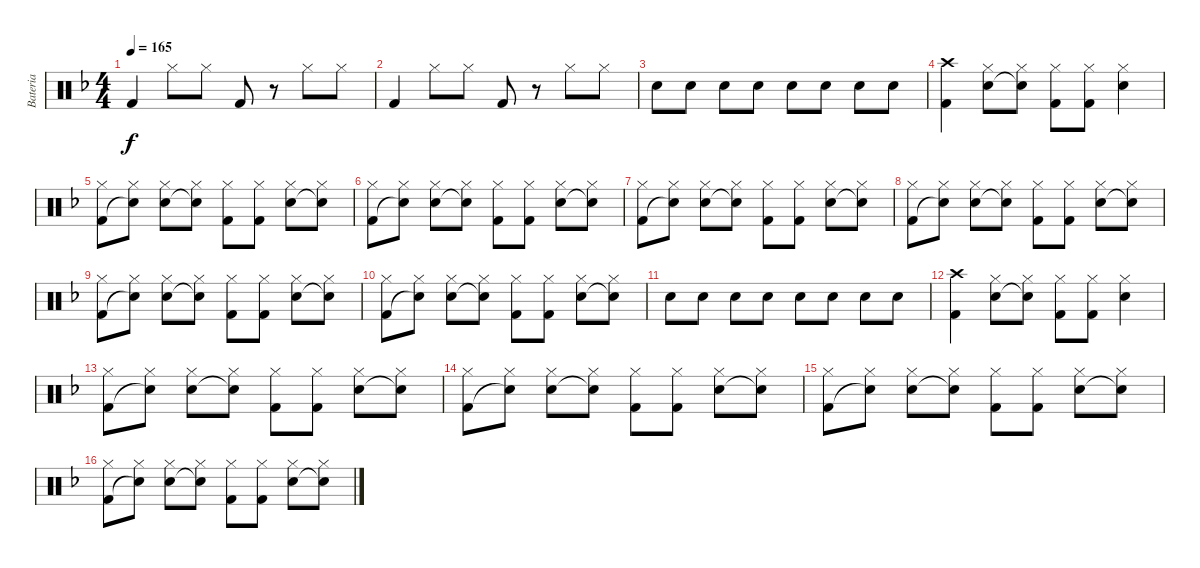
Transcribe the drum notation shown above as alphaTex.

\track ("Bateria" "Bateria") {instrument percussion}
\staff {score}
\articulation defaults
\ts (4 4)
\tempo 165
\clef neutral
\ks dminor "Kick (hit) 2".4{dy f} "Hi-Hat (closed)".8 "Hi-Hat (closed)".8 "Kick (hit) 2".8
r.8 "Hi-Hat (closed)".8 "Hi-Hat (closed)".8 |
"Kick (hit) 2".4 "Hi-Hat (closed)".8 "Hi-Hat (closed)".8 "Kick (hit) 2".8 r.8 "Hi-Hat (closed)".8 "Hi-Hat (closed)".8 |
"Snare (hit) 2".8 "Snare (hit) 2".8 "Snare (hit) 2".8 "Snare (hit) 2".8 "Snare (hit) 2".8 "Snare (hit) 2".8 "Snare (hit) 2".8 "Snare (hit) 2".8 |
("Crash high (hit)" "Kick (hit) 2").4 ("Hi-Hat (closed)" "Snare (hit) 2").8 ("Hi-Hat (closed)" "Snare (hit)"{t}).8 ("Hi-Hat (closed)" "Kick (hit) 2").8 ("Hi-Hat (closed)" "Kick (hit) 2").8 ("Hi-Hat (closed)" "Snare (hit) 2").4 |
("Hi-Hat (closed)" "Kick (hit) 2").8 ("Hi-Hat (closed)" "Snare (hit)"{t}).8 ("Hi-Hat (closed)" "Snare (hit) 2").8 ("Hi-Hat (closed)" "Snare (hit)"{t}).8 ("Hi-Hat (closed)" "Kick (hit) 2").8 ("Hi-Hat (closed)" "Kick (hit) 2").8 ("Hi-Hat (closed)" "Snare (hit) 2").8 ("Hi-Hat (closed)" "Snare (hit)"{t}).8 |
("Hi-Hat (closed)" "Kick (hit) 2").8 ("Hi-Hat (closed)" "Snare (hit)"{t}).8 ("Hi-Hat (closed)" "Snare (hit) 2").8 ("Hi-Hat (closed)" "Snare (hit)"{t}).8 ("Hi-Hat (closed)" "Kick (hit) 2").8 ("Hi-Hat (closed)" "Kick (hit) 2").8 ("Hi-Hat (closed)" "Snare (hit) 2").8 ("Hi-Hat (closed)" "Snare (hit)"{t}).8 |
("Hi-Hat (closed)" "Kick (hit) 2").8 ("Hi-Hat (closed)" "Snare (hit)"{t}).8 ("Hi-Hat (closed)" "Snare (hit) 2").8 ("Hi-Hat (closed)" "Snare (hit)"{t}).8 ("Hi-Hat (closed)" "Kick (hit) 2").8 ("Hi-Hat (closed)" "Kick (hit) 2").8 ("Hi-Hat (closed)" "Snare (hit) 2").8 ("Hi-Hat (closed)" "Snare (hit)"{t}).8 |
("Hi-Hat (closed)" "Kick (hit) 2").8 ("Hi-Hat (closed)" "Snare (hit)"{t}).8 ("Hi-Hat (closed)" "Snare (hit) 2").8 ("Hi-Hat (closed)" "Snare (hit)"{t}).8 ("Hi-Hat (closed)" "Kick (hit) 2").8 ("Hi-Hat (closed)" "Kick (hit) 2").8 ("Hi-Hat (closed)" "Snare (hit) 2").8 ("Hi-Hat (closed)" "Snare (hit)"{t}).8 |
("Hi-Hat (closed)" "Kick (hit) 2").8 ("Hi-Hat (closed)" "Snare (hit)"{t}).8 ("Hi-Hat (closed)" "Snare (hit) 2").8 ("Hi-Hat (closed)" "Snare (hit)"{t}).8 ("Hi-Hat (closed)" "Kick (hit) 2").8 ("Hi-Hat (closed)" "Kick (hit) 2").8 ("Hi-Hat (closed)" "Snare (hit) 2").8 ("Hi-Hat (closed)" "Snare (hit)"{t}).8 |
("Hi-Hat (closed)" "Kick (hit) 2").8 ("Hi-Hat (closed)" "Snare (hit)"{t}).8 ("Hi-Hat (closed)" "Snare (hit) 2").8 ("Hi-Hat (closed)" "Snare (hit)"{t}).8 ("Hi-Hat (closed)" "Kick (hit) 2").8 ("Hi-Hat (closed)" "Kick (hit) 2").8 ("Hi-Hat (closed)" "Snare (hit) 2").8 ("Hi-Hat (closed)" "Snare (hit)"{t}).8 |
"Snare (hit) 2".8 "Snare (hit) 2".8 "Snare (hit) 2".8 "Snare (hit) 2".8 "Snare (hit) 2".8 "Snare (hit) 2".8 "Snare (hit) 2".8 "Snare (hit) 2".8 |
("Crash high (hit)" "Kick (hit) 2").4 ("Hi-Hat (closed)" "Snare (hit) 2").8 ("Hi-Hat (closed)" "Snare (hit)"{t}).8 ("Hi-Hat (closed)" "Kick (hit) 2").8 ("Hi-Hat (closed)" "Kick (hit) 2").8 ("Hi-Hat (closed)" "Snare (hit) 2").4 |
("Hi-Hat (closed)" "Kick (hit) 2").8 ("Hi-Hat (closed)" "Snare (hit)"{t}).8 ("Hi-Hat (closed)" "Snare (hit) 2").8 ("Hi-Hat (closed)" "Snare (hit)"{t}).8 ("Hi-Hat (closed)" "Kick (hit) 2").8 ("Hi-Hat (closed)" "Kick (hit) 2").8 ("Hi-Hat (closed)" "Snare (hit) 2").8 ("Hi-Hat (closed)" "Snare (hit)"{t}).8 |
("Hi-Hat (closed)" "Kick (hit) 2").8 ("Hi-Hat (closed)" "Snare (hit)"{t}).8 ("Hi-Hat (closed)" "Snare (hit) 2").8 ("Hi-Hat (closed)" "Snare (hit)"{t}).8 ("Hi-Hat (closed)" "Kick (hit) 2").8 ("Hi-Hat (closed)" "Kick (hit) 2").8 ("Hi-Hat (closed)" "Snare (hit) 2").8 ("Hi-Hat (closed)" "Snare (hit)"{t}).8 |
("Hi-Hat (closed)" "Kick (hit) 2").8 ("Hi-Hat (closed)" "Snare (hit)"{t}).8 ("Hi-Hat (closed)" "Snare (hit) 2").8 ("Hi-Hat (closed)" "Snare (hit)"{t}).8 ("Hi-Hat (closed)" "Kick (hit) 2").8 ("Hi-Hat (closed)" "Kick (hit) 2").8 ("Hi-Hat (closed)" "Snare (hit) 2").8 ("Hi-Hat (closed)" "Snare (hit)"{t}).8 |
("Hi-Hat (closed)" "Kick (hit) 2").8 ("Hi-Hat (closed)" "Snare (hit)"{t}).8 ("Hi-Hat (closed)" "Snare (hit) 2").8 ("Hi-Hat (closed)" "Snare (hit)"{t}).8 ("Hi-Hat (closed)" "Kick (hit) 2").8 ("Hi-Hat (closed)" "Kick (hit) 2").8 ("Hi-Hat (closed)" "Snare (hit) 2").8 ("Hi-Hat (closed)" "Snare (hit)"{t}).8
